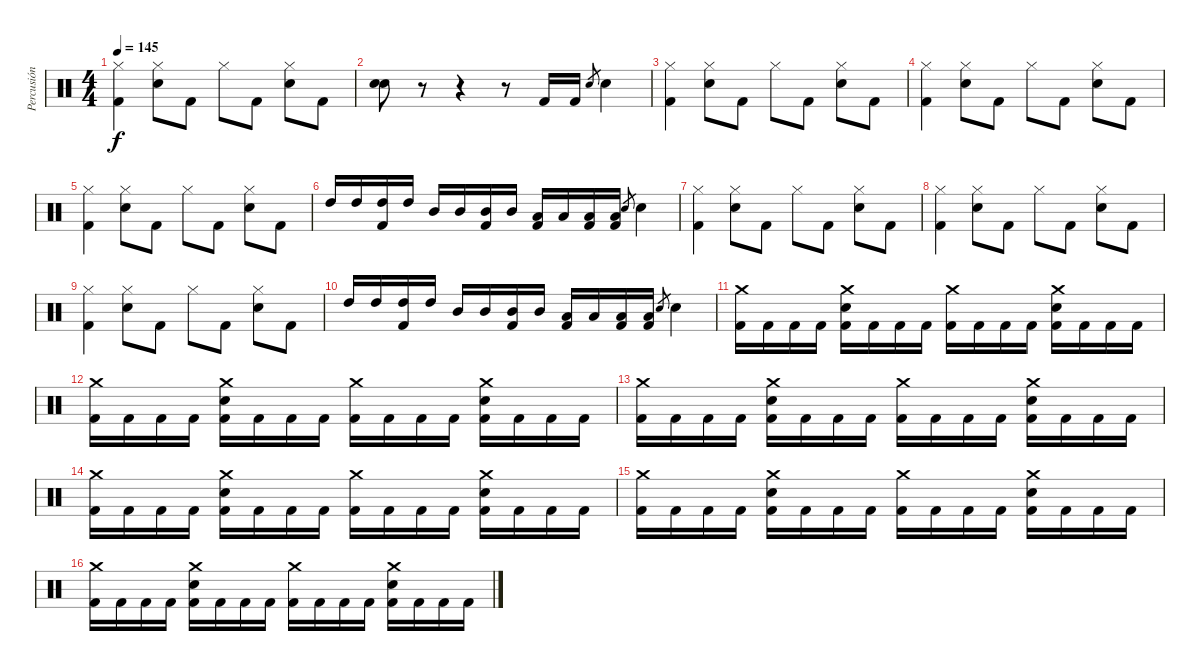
\track ("Percusión" "Percusión") {instrument percussion}
\staff {score}
\articulation defaults
\ts (4 4)
\tempo 145
\clef neutral
\ks c
("Hi-Hat (closed)" "Kick (hit) 2").4{dy f} ("Hi-Hat (closed)" "Snare (hit) 2").8 "Kick (hit) 2".8 "Hi-Hat (closed)".8 "Kick (hit) 2".8 ("Hi-Hat (closed)" "Snare (hit) 2").8 "Kick (hit) 2".8 |
("Snare (hit) 2" "Snare (hit) 2").8 r.8 r.4 r.8 "Kick (hit) 2".16 "Kick (hit) 2".16 "Snare (hit) 2".8{gr} "Snare (hit) 2".4 |
("Hi-Hat (closed)" "Kick (hit) 2").4 ("Hi-Hat (closed)" "Snare (hit) 2").8 "Kick (hit) 2".8 "Hi-Hat (closed)".8 "Kick (hit) 2".8 ("Hi-Hat (closed)" "Snare (hit) 2").8 "Kick (hit) 2".8 |
("Hi-Hat (closed)" "Kick (hit) 2").4 ("Hi-Hat (closed)" "Snare (hit) 2").8 "Kick (hit) 2".8 "Hi-Hat (closed)".8 "Kick (hit) 2".8 ("Hi-Hat (closed)" "Snare (hit) 2").8 "Kick (hit) 2".8 |
("Hi-Hat (closed)" "Kick (hit) 2").4 ("Hi-Hat (closed)" "Snare (hit) 2").8 "Kick (hit) 2".8 "Hi-Hat (closed)".8 "Kick (hit) 2".8 ("Hi-Hat (closed)" "Snare (hit) 2").8 "Kick (hit) 2".8 |
"High Tom (hit)".16 "High Tom (hit)".16 ("High Tom (hit)" "Kick (hit) 2").16 "High Tom (hit)".16 "Mid Tom (hit)".16 "Mid Tom (hit)".16 ("Mid Tom (hit)" "Kick (hit) 2").16 "Mid Tom (hit)".16 ("Low Tom (hit)" "Kick (hit) 2").16 "Low Tom (hit)".16 ("Low Tom (hit)" "Kick (hit) 2").16 ("Low Tom (hit)" "Kick (hit) 2").16 "Snare (hit) 2".8{gr} "Snare (hit) 2".4 |
("Hi-Hat (closed)" "Kick (hit) 2").4 ("Hi-Hat (closed)" "Snare (hit) 2").8 "Kick (hit) 2".8 "Hi-Hat (closed)".8 "Kick (hit) 2".8 ("Hi-Hat (closed)" "Snare (hit) 2").8 "Kick (hit) 2".8 |
("Hi-Hat (closed)" "Kick (hit) 2").4 ("Hi-Hat (closed)" "Snare (hit) 2").8 "Kick (hit) 2".8 "Hi-Hat (closed)".8 "Kick (hit) 2".8 ("Hi-Hat (closed)" "Snare (hit) 2").8 "Kick (hit) 2".8 |
("Hi-Hat (closed)" "Kick (hit) 2").4 ("Hi-Hat (closed)" "Snare (hit) 2").8 "Kick (hit) 2".8 "Hi-Hat (closed)".8 "Kick (hit) 2".8 ("Hi-Hat (closed)" "Snare (hit) 2").8 "Kick (hit) 2".8 |
"High Tom (hit)".16 "High Tom (hit)".16 ("High Tom (hit)" "Kick (hit) 2").16 "High Tom (hit)".16 "Mid Tom (hit)".16 "Mid Tom (hit)".16 ("Mid Tom (hit)" "Kick (hit) 2").16 "Mid Tom (hit)".16 ("Low Tom (hit)" "Kick (hit) 2").16 "Low Tom (hit)".16 ("Low Tom (hit)" "Kick (hit) 2").16 ("Low Tom (hit)" "Kick (hit) 2").16 "Snare (hit) 2".8{gr} "Snare (hit) 2".4 |
("Crash medium (hit)" "Kick (hit) 2").16 "Kick (hit) 2".16 "Kick (hit) 2".16 "Kick (hit) 2".16 ("Crash medium (hit)" "Snare (hit) 2" "Kick (hit) 2").16 "Kick (hit) 2".16 "Kick (hit) 2".16 "Kick (hit) 2".16 ("Crash medium (hit)" "Kick (hit) 2").16 "Kick (hit) 2".16 "Kick (hit) 2".16 "Kick (hit) 2".16 ("Crash medium (hit)" "Snare (hit) 2" "Kick (hit) 2").16 "Kick (hit) 2".16 "Kick (hit) 2".16 "Kick (hit) 2".16 |
("Crash medium (hit)" "Kick (hit) 2").16 "Kick (hit) 2".16 "Kick (hit) 2".16 "Kick (hit) 2".16 ("Crash medium (hit)" "Snare (hit) 2" "Kick (hit) 2").16 "Kick (hit) 2".16 "Kick (hit) 2".16 "Kick (hit) 2".16 ("Crash medium (hit)" "Kick (hit) 2").16 "Kick (hit) 2".16 "Kick (hit) 2".16 "Kick (hit) 2".16 ("Crash medium (hit)" "Snare (hit) 2" "Kick (hit) 2").16 "Kick (hit) 2".16 "Kick (hit) 2".16 "Kick (hit) 2".16 |
("Crash medium (hit)" "Kick (hit) 2").16 "Kick (hit) 2".16 "Kick (hit) 2".16 "Kick (hit) 2".16 ("Crash medium (hit)" "Snare (hit) 2" "Kick (hit) 2").16 "Kick (hit) 2".16 "Kick (hit) 2".16 "Kick (hit) 2".16 ("Crash medium (hit)" "Kick (hit) 2").16 "Kick (hit) 2".16 "Kick (hit) 2".16 "Kick (hit) 2".16 ("Crash medium (hit)" "Snare (hit) 2" "Kick (hit) 2").16 "Kick (hit) 2".16 "Kick (hit) 2".16 "Kick (hit) 2".16 |
("Crash medium (hit)" "Kick (hit) 2").16 "Kick (hit) 2".16 "Kick (hit) 2".16 "Kick (hit) 2".16 ("Crash medium (hit)" "Snare (hit) 2" "Kick (hit) 2").16 "Kick (hit) 2".16 "Kick (hit) 2".16 "Kick (hit) 2".16 ("Crash medium (hit)" "Kick (hit) 2").16 "Kick (hit) 2".16 "Kick (hit) 2".16 "Kick (hit) 2".16 ("Crash medium (hit)" "Snare (hit) 2" "Kick (hit) 2").16 "Kick (hit) 2".16 "Kick (hit) 2".16 "Kick (hit) 2".16 |
("Crash medium (hit)" "Kick (hit) 2").16 "Kick (hit) 2".16 "Kick (hit) 2".16 "Kick (hit) 2".16 ("Crash medium (hit)" "Snare (hit) 2" "Kick (hit) 2").16 "Kick (hit) 2".16 "Kick (hit) 2".16 "Kick (hit) 2".16 ("Crash medium (hit)" "Kick (hit) 2").16 "Kick (hit) 2".16 "Kick (hit) 2".16 "Kick (hit) 2".16 ("Crash medium (hit)" "Snare (hit) 2" "Kick (hit) 2").16 "Kick (hit) 2".16 "Kick (hit) 2".16 "Kick (hit) 2".16 |
("Crash medium (hit)" "Kick (hit) 2").16 "Kick (hit) 2".16 "Kick (hit) 2".16 "Kick (hit) 2".16 ("Crash medium (hit)" "Snare (hit) 2" "Kick (hit) 2").16 "Kick (hit) 2".16 "Kick (hit) 2".16 "Kick (hit) 2".16 ("Crash medium (hit)" "Kick (hit) 2").16 "Kick (hit) 2".16 "Kick (hit) 2".16 "Kick (hit) 2".16 ("Crash medium (hit)" "Snare (hit) 2" "Kick (hit) 2").16 "Kick (hit) 2".16 "Kick (hit) 2".16 "Kick (hit) 2".16
